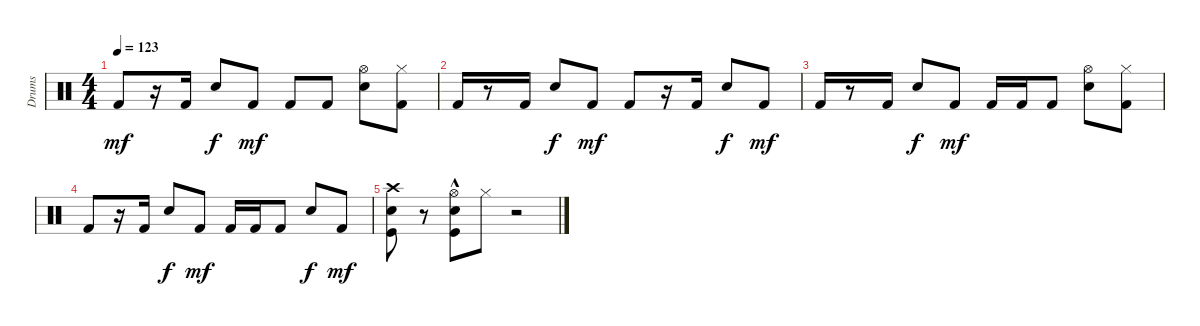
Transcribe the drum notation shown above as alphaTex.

\track ("Drums" "Drums") {instrument percussion}
\staff {score}
\articulation defaults
\ts (4 4)
\tempo 123
\clef neutral
\ks c "Kick (hit) 2".8{dy mf}
r.16 "Kick (hit) 2".16 "Snare (hit) 2".8{dy f} "Kick (hit) 2".8{dy mf} "Kick (hit) 2".8 "Kick (hit) 2".8 ("Snare (hit) 2" "Hi-Hat (open)").8 ("Kick (hit) 2" "Hi-Hat (closed)").8 |
"Kick (hit) 2".16 r.8 "Kick (hit) 2".16 "Snare (hit) 2".8{dy f} "Kick (hit) 2".8{dy mf} "Kick (hit) 2".8 r.16 "Kick (hit) 2".16 "Snare (hit) 2".8{dy f} "Kick (hit) 2".8{dy mf} |
"Kick (hit) 2".16 r.8 "Kick (hit) 2".16 "Snare (hit) 2".8{dy f} "Kick (hit) 2".8{dy mf} "Kick (hit) 2".16 "Kick (hit) 2".16 "Kick (hit) 2".8 ("Snare (hit) 2" "Hi-Hat (open)").8 ("Kick (hit) 2" "Hi-Hat (closed)").8 |
"Kick (hit) 2".8 r.16 "Kick (hit) 2".16 "Snare (hit) 2".8{dy f} "Kick (hit) 2".8{dy mf} "Kick (hit) 2".16 "Kick (hit) 2".16 "Kick (hit) 2".8 "Snare (hit) 2".8{dy f} "Kick (hit) 2".8{dy mf} |
("Kick (hit)" "Snare (hit) 2" "Crash high (hit)").8 r.8 ("Kick (hit)" "Snare (hit) 2"{hac} "Hi-Hat (open)"{hac}).8 "Hi-Hat (closed)".8 r.2
